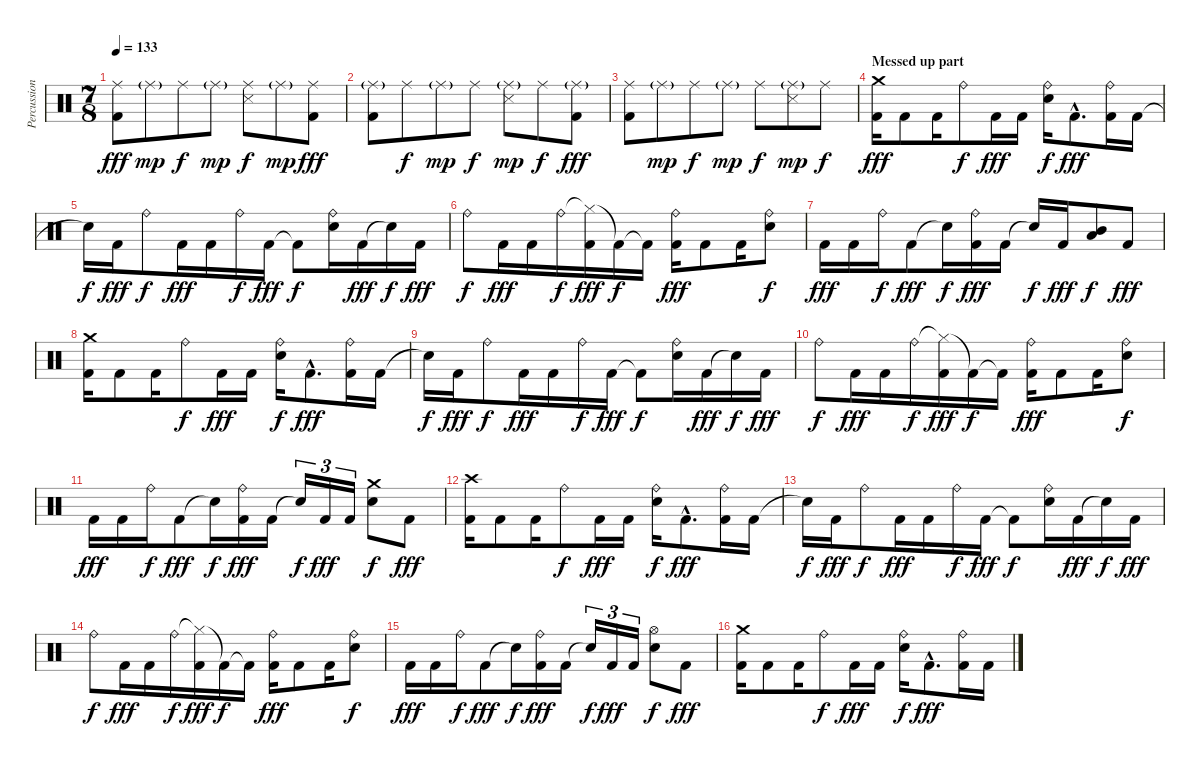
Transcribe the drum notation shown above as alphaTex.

\track ("Percussion" "Percussion") {instrument percussion}
\staff {score}
\articulation defaults
\ts (7 8)
\tempo 133
\clef neutral
\ks c
("Ride (middle)" "Kick (hit) 2").8{dy fff} "Ride (middle)"{g}.8{dy mp} "Ride (middle)".8{dy f} "Ride (middle)"{g}.8{dy mp} ("Ride (middle)" "Snare (side stick) 3").8{dy f} "Ride (middle)"{g}.8{dy mp} ("Ride (middle)" "Kick (hit) 2").8{dy fff} |
("Ride (middle)"{g} "Kick (hit) 2").8 "Ride (middle)".8{dy f} "Ride (middle)"{g}.8{dy mp} "Ride (middle)".8{dy f} ("Ride (middle)"{g} "Snare (side stick) 3").8{dy mp} "Ride (middle)".8{dy f} ("Ride (middle)"{g} "Kick (hit) 2").8{dy fff} |
("Ride (middle)" "Kick (hit) 2").8 "Ride (middle)"{g}.8{dy mp} "Ride (middle)".8{dy f} "Ride (middle)"{g}.8{dy mp} "Ride (middle)".8{dy f} ("Ride (middle)"{g} "Snare (side stick) 3").8{dy mp} "Ride (middle)".8{dy f} |
\section ("" "Messed up part")
("Crash medium (hit)" "Kick (hit) 2").16{dy fff} "Kick (hit) 2".8 "Kick (hit) 2".16 "Ride (bell)".8{dy f} "Kick (hit) 2".16{dy fff} "Kick (hit) 2".16 ("Ride (bell)" "Electric Snare (hit)").16{dy f} "Kick (hit) 2"{hac}.8{d dy fff} ("Ride (bell)" "Kick (hit) 2").16 "Kick (hit) 2".16 |
"Snare (hit)"{t}.16{dy f} "Kick (hit) 2".16{dy fff} "Ride (bell)".8{dy f} "Kick (hit) 2".16{dy fff} "Kick (hit) 2".16 "Ride (bell)".16{dy f} "Kick (hit) 2".16{dy fff} "Kick (hit) 2"{t}.8{dy f} ("Ride (bell)" "Electric Snare (hit)").16 "Kick (hit) 2".16{dy fff} "Snare (hit)"{t}.16{dy f} "Kick (hit) 2".16{dy fff} |
"Ride (bell)".8{dy f} "Kick (hit) 2".16{dy fff} "Kick (hit) 2".16 "Ride (bell)".16{dy f} ("Hi-Hat (closed)"{t} "Kick (hit) 2").16{dy fff} "Kick (hit) 2"{t}.16{dy f} "Kick (hit) 2"{t}.16 ("Ride (bell)" "Kick (hit) 2").16{dy fff} "Kick (hit) 2".8 "Kick (hit) 2".16 ("Ride (bell)" "Electric Snare (hit)").8{dy f} |
"Kick (hit) 2".16{dy fff} "Kick (hit) 2".16 "Ride (bell)".16{dy f} "Kick (hit) 2".8{dy fff} "Snare (hit)"{t}.16{dy f} ("Ride (bell)" "Kick (hit) 2").16{dy fff} "Kick (hit) 2".16 "Snare (hit)"{t}.16{dy f} "Kick (hit) 2".16{dy fff} ("Mid Tom (hit)" "Low Tom (hit)").8{dy f} "Kick (hit) 2".8{dy fff} |
("Crash medium (hit)" "Kick (hit) 2").16 "Kick (hit) 2".8 "Kick (hit) 2".16 "Ride (bell)".8{dy f} "Kick (hit) 2".16{dy fff} "Kick (hit) 2".16 ("Ride (bell)" "Electric Snare (hit)").16{dy f} "Kick (hit) 2"{hac}.8{d dy fff} ("Ride (bell)" "Kick (hit) 2").16 "Kick (hit) 2".16 |
"Snare (hit)"{t}.16{dy f} "Kick (hit) 2".16{dy fff} "Ride (bell)".8{dy f} "Kick (hit) 2".16{dy fff} "Kick (hit) 2".16 "Ride (bell)".16{dy f} "Kick (hit) 2".16{dy fff} "Kick (hit) 2"{t}.8{dy f} ("Ride (bell)" "Electric Snare (hit)").16 "Kick (hit) 2".16{dy fff} "Snare (hit)"{t}.16{dy f} "Kick (hit) 2".16{dy fff} |
"Ride (bell)".8{dy f} "Kick (hit) 2".16{dy fff} "Kick (hit) 2".16 "Ride (bell)".16{dy f} ("Hi-Hat (closed)"{t} "Kick (hit) 2").16{dy fff} "Kick (hit) 2"{t}.16{dy f} "Kick (hit) 2"{t}.16 ("Ride (bell)" "Kick (hit) 2").16{dy fff} "Kick (hit) 2".8 "Kick (hit) 2".16 ("Ride (bell)" "Electric Snare (hit)").8{dy f} |
"Kick (hit) 2".16{dy fff} "Kick (hit) 2".16 "Ride (bell)".16{dy f} "Kick (hit) 2".8{dy fff} "Snare (hit)"{t}.16{dy f} ("Ride (bell)" "Kick (hit) 2").16{dy fff} "Kick (hit) 2".16 "Snare (hit)"{t}.16{tu (3 2) dy f} "Kick (hit) 2".16{tu (3 2) dy fff} "Kick (hit) 2".16{tu (3 2)} ("Crash medium (hit)" "Electric Snare (hit)").8{dy f} "Kick (hit) 2".8{dy fff} |
("Crash high (hit)" "Kick (hit) 2").16 "Kick (hit) 2".8 "Kick (hit) 2".16 "Ride (bell)".8{dy f} "Kick (hit) 2".16{dy fff} "Kick (hit) 2".16 ("Ride (bell)" "Electric Snare (hit)").16{dy f} "Kick (hit) 2"{hac}.8{d dy fff} ("Ride (bell)" "Kick (hit) 2").16 "Kick (hit) 2".16 |
"Snare (hit)"{t}.16{dy f} "Kick (hit) 2".16{dy fff} "Ride (bell)".8{dy f} "Kick (hit) 2".16{dy fff} "Kick (hit) 2".16 "Ride (bell)".16{dy f} "Kick (hit) 2".16{dy fff} "Kick (hit) 2"{t}.8{dy f} ("Ride (bell)" "Electric Snare (hit)").16 "Kick (hit) 2".16{dy fff} "Snare (hit)"{t}.16{dy f} "Kick (hit) 2".16{dy fff} |
"Ride (bell)".8{dy f} "Kick (hit) 2".16{dy fff} "Kick (hit) 2".16 "Ride (bell)".16{dy f} ("Hi-Hat (closed)"{t} "Kick (hit) 2").16{dy fff} "Kick (hit) 2"{t}.16{dy f} "Kick (hit) 2"{t}.16 ("Ride (bell)" "Kick (hit) 2").16{dy fff} "Kick (hit) 2".8 "Kick (hit) 2".16 ("Ride (bell)" "Electric Snare (hit)").8{dy f} |
"Kick (hit) 2".16{dy fff} "Kick (hit) 2".16 "Ride (bell)".16{dy f} "Kick (hit) 2".8{dy fff} "Snare (hit)"{t}.16{dy f} ("Ride (bell)" "Kick (hit) 2").16{dy fff} "Kick (hit) 2".16 "Snare (hit)"{t}.16{tu (3 2) dy f} "Kick (hit) 2".16{tu (3 2) dy fff} "Kick (hit) 2".16{tu (3 2)} ("Hi-Hat (open)" "Electric Snare (hit)").8{dy f} "Kick (hit) 2".8{dy fff} |
("Crash medium (hit)" "Kick (hit) 2").16 "Kick (hit) 2".8 "Kick (hit) 2".16 "Ride (bell)".8{dy f} "Kick (hit) 2".16{dy fff} "Kick (hit) 2".16 ("Ride (bell)" "Electric Snare (hit)").16{dy f} "Kick (hit) 2"{hac}.8{d dy fff} ("Ride (bell)" "Kick (hit) 2").16 "Kick (hit) 2".16
